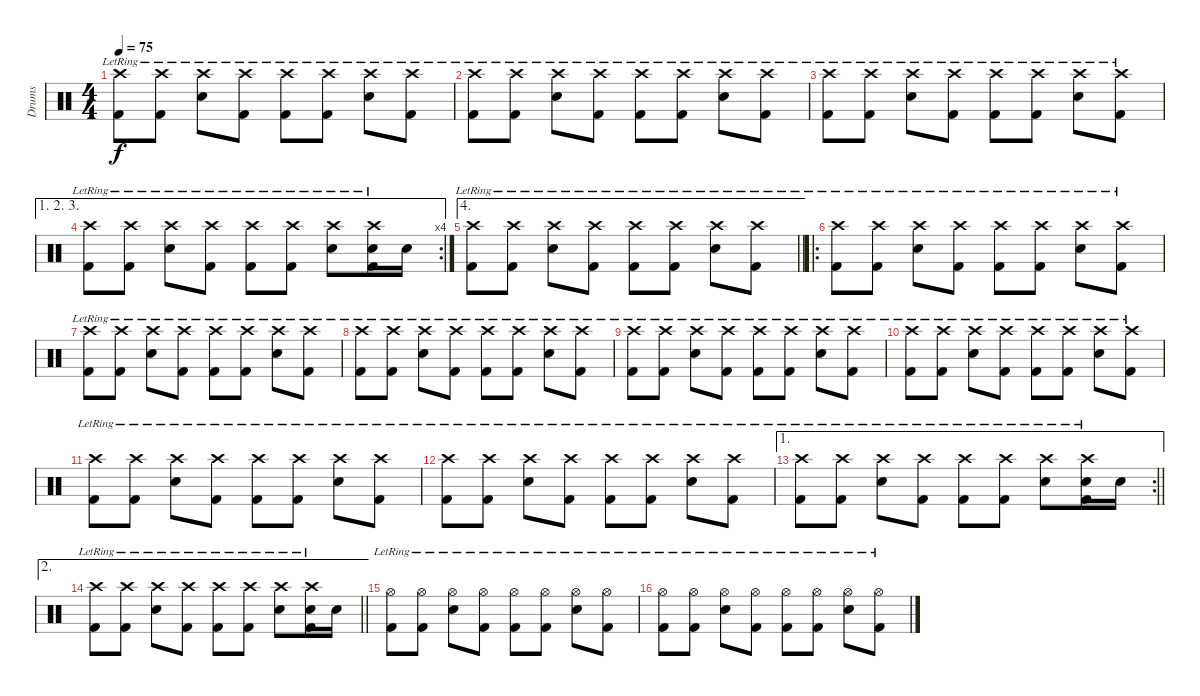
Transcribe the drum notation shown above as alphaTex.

\track ("Drums" "Drums") {instrument percussion}
\staff {score}
\articulation defaults
\ts (4 4)
\tempo 75
\clef neutral
\ks c
("Crash high (hit)"{lr} "Kick (hit) 2"{lr}).8{dy f} ("Crash high (hit)"{lr} "Kick (hit) 2"{lr}).8 ("Crash high (hit)"{lr} "Electric Snare (hit)"{lr}).8 ("Crash high (hit)"{lr} "Kick (hit) 2"{lr}).8 ("Crash high (hit)"{lr} "Kick (hit) 2"{lr}).8 ("Crash high (hit)"{lr} "Kick (hit) 2"{lr}).8 ("Crash high (hit)"{lr} "Electric Snare (hit)"{lr}).8 ("Crash high (hit)"{lr} "Kick (hit) 2"{lr}).8 |
("Crash high (hit)"{lr} "Kick (hit) 2"{lr}).8 ("Crash high (hit)"{lr} "Kick (hit) 2"{lr}).8 ("Crash high (hit)"{lr} "Electric Snare (hit)"{lr}).8 ("Crash high (hit)"{lr} "Kick (hit) 2"{lr}).8 ("Crash high (hit)"{lr} "Kick (hit) 2"{lr}).8 ("Crash high (hit)"{lr} "Kick (hit) 2"{lr}).8 ("Crash high (hit)"{lr} "Electric Snare (hit)"{lr}).8 ("Crash high (hit)"{lr} "Kick (hit) 2"{lr}).8 |
("Crash high (hit)"{lr} "Kick (hit) 2"{lr}).8 ("Crash high (hit)"{lr} "Kick (hit) 2"{lr}).8 ("Crash high (hit)"{lr} "Electric Snare (hit)"{lr}).8 ("Crash high (hit)"{lr} "Kick (hit) 2"{lr}).8 ("Crash high (hit)"{lr} "Kick (hit) 2"{lr}).8 ("Crash high (hit)"{lr} "Kick (hit) 2"{lr}).8 ("Crash high (hit)"{lr} "Electric Snare (hit)"{lr}).8 ("Crash high (hit)"{lr} "Kick (hit) 2"{lr}).8 |
\ae (1 2 3)
\rc 4
("Crash high (hit)"{lr} "Kick (hit) 2"{lr}).8 ("Crash high (hit)"{lr} "Kick (hit) 2"{lr}).8 ("Crash high (hit)"{lr} "Electric Snare (hit)"{lr}).8 ("Crash high (hit)"{lr} "Kick (hit) 2"{lr}).8 ("Crash high (hit)"{lr} "Kick (hit) 2"{lr}).8 ("Crash high (hit)" "Kick (hit) 2"{lr}).8 ("Crash high (hit)"{lr} "Electric Snare (hit)"{lr}).8 ("Crash high (hit)"{lr} "Electric Snare (hit)" "Kick (hit) 2"{lr}).16 "Electric Snare (hit)".16 |
\ae 4
\barLineRight lightlight
("Crash high (hit)"{lr} "Kick (hit) 2"{lr}).8 ("Crash high (hit)"{lr} "Kick (hit) 2"{lr}).8 ("Crash high (hit)"{lr} "Electric Snare (hit)"{lr}).8 ("Crash high (hit)"{lr} "Kick (hit) 2"{lr}).8 ("Crash high (hit)"{lr} "Kick (hit) 2"{lr}).8 ("Crash high (hit)"{lr} "Kick (hit) 2"{lr}).8 ("Crash high (hit)"{lr} "Electric Snare (hit)"{lr}).8 ("Crash high (hit)"{lr} "Kick (hit) 2"{lr}).8 |
\ro
("Crash high (hit)"{lr} "Kick (hit) 2"{lr}).8 ("Crash high (hit)"{lr} "Kick (hit) 2"{lr}).8 ("Crash high (hit)"{lr} "Electric Snare (hit)"{lr}).8 ("Crash high (hit)"{lr} "Kick (hit) 2"{lr}).8 ("Crash high (hit)"{lr} "Kick (hit) 2"{lr}).8 ("Crash high (hit)"{lr} "Kick (hit) 2"{lr}).8 ("Crash high (hit)"{lr} "Electric Snare (hit)"{lr}).8 ("Crash high (hit)"{lr} "Kick (hit) 2"{lr}).8 |
("Crash high (hit)"{lr} "Kick (hit) 2"{lr}).8 ("Crash high (hit)"{lr} "Kick (hit) 2"{lr}).8 ("Crash high (hit)"{lr} "Electric Snare (hit)"{lr}).8 ("Crash high (hit)"{lr} "Kick (hit) 2"{lr}).8 ("Crash high (hit)"{lr} "Kick (hit) 2"{lr}).8 ("Crash high (hit)"{lr} "Kick (hit) 2"{lr}).8 ("Crash high (hit)"{lr} "Electric Snare (hit)"{lr}).8 ("Crash high (hit)"{lr} "Kick (hit) 2"{lr}).8 |
("Crash high (hit)"{lr} "Kick (hit) 2"{lr}).8 ("Crash high (hit)"{lr} "Kick (hit) 2"{lr}).8 ("Crash high (hit)"{lr} "Electric Snare (hit)"{lr}).8 ("Crash high (hit)"{lr} "Kick (hit) 2"{lr}).8 ("Crash high (hit)"{lr} "Kick (hit) 2"{lr}).8 ("Crash high (hit)"{lr} "Kick (hit) 2"{lr}).8 ("Crash high (hit)"{lr} "Electric Snare (hit)"{lr}).8 ("Crash high (hit)"{lr} "Kick (hit) 2"{lr}).8 |
("Crash high (hit)"{lr} "Kick (hit) 2"{lr}).8 ("Crash high (hit)"{lr} "Kick (hit) 2"{lr}).8 ("Crash high (hit)"{lr} "Electric Snare (hit)"{lr}).8 ("Crash high (hit)"{lr} "Kick (hit) 2"{lr}).8 ("Crash high (hit)"{lr} "Kick (hit) 2"{lr}).8 ("Crash high (hit)"{lr} "Kick (hit) 2"{lr}).8 ("Crash high (hit)"{lr} "Electric Snare (hit)"{lr}).8 ("Crash high (hit)"{lr} "Kick (hit) 2"{lr}).8 |
("Crash high (hit)"{lr} "Kick (hit) 2"{lr}).8 ("Crash high (hit)"{lr} "Kick (hit) 2"{lr}).8 ("Crash high (hit)"{lr} "Electric Snare (hit)"{lr}).8 ("Crash high (hit)"{lr} "Kick (hit) 2"{lr}).8 ("Crash high (hit)"{lr} "Kick (hit) 2"{lr}).8 ("Crash high (hit)"{lr} "Kick (hit) 2"{lr}).8 ("Crash high (hit)"{lr} "Electric Snare (hit)"{lr}).8 ("Crash high (hit)"{lr} "Kick (hit) 2"{lr}).8 |
("Crash high (hit)"{lr} "Kick (hit) 2"{lr}).8 ("Crash high (hit)"{lr} "Kick (hit) 2"{lr}).8 ("Crash high (hit)"{lr} "Electric Snare (hit)"{lr}).8 ("Crash high (hit)"{lr} "Kick (hit) 2"{lr}).8 ("Crash high (hit)"{lr} "Kick (hit) 2"{lr}).8 ("Crash high (hit)"{lr} "Kick (hit) 2"{lr}).8 ("Crash high (hit)"{lr} "Electric Snare (hit)"{lr}).8 ("Crash high (hit)"{lr} "Kick (hit) 2"{lr}).8 |
("Crash high (hit)"{lr} "Kick (hit) 2"{lr}).8 ("Crash high (hit)"{lr} "Kick (hit) 2"{lr}).8 ("Crash high (hit)"{lr} "Electric Snare (hit)"{lr}).8 ("Crash high (hit)"{lr} "Kick (hit) 2"{lr}).8 ("Crash high (hit)"{lr} "Kick (hit) 2"{lr}).8 ("Crash high (hit)"{lr} "Kick (hit) 2"{lr}).8 ("Crash high (hit)"{lr} "Electric Snare (hit)"{lr}).8 ("Crash high (hit)"{lr} "Kick (hit) 2"{lr}).8 |
\ae 1
\rc 2
\barLineRight lightlight
("Crash high (hit)"{lr} "Kick (hit) 2"{lr}).8 ("Crash high (hit)"{lr} "Kick (hit) 2"{lr}).8 ("Crash high (hit)"{lr} "Electric Snare (hit)"{lr}).8 ("Crash high (hit)"{lr} "Kick (hit) 2"{lr}).8 ("Crash high (hit)"{lr} "Kick (hit) 2"{lr}).8 ("Crash high (hit)" "Kick (hit) 2"{lr}).8 ("Crash high (hit)"{lr} "Electric Snare (hit)"{lr}).8 ("Crash high (hit)"{lr} "Electric Snare (hit)" "Kick (hit) 2"{lr}).16 "Electric Snare (hit)".16 |
\ae 2
\barLineRight lightlight
("Crash high (hit)"{lr} "Kick (hit) 2"{lr}).8 ("Crash high (hit)"{lr} "Kick (hit) 2"{lr}).8 ("Crash high (hit)"{lr} "Electric Snare (hit)"{lr}).8 ("Crash high (hit)"{lr} "Kick (hit) 2"{lr}).8 ("Crash high (hit)"{lr} "Kick (hit) 2"{lr}).8 ("Crash high (hit)" "Kick (hit) 2"{lr}).8 ("Crash high (hit)"{lr} "Electric Snare (hit)"{lr}).8 ("Crash high (hit)"{lr} "Electric Snare (hit)" "Kick (hit) 2"{lr}).16 "Electric Snare (hit)".16 |
("Hi-Hat (open)"{lr} "Kick (hit) 2"{lr}).8{volume 9} ("Hi-Hat (open)"{lr} "Kick (hit) 2"{lr}).8 ("Hi-Hat (open)"{lr} "Electric Snare (hit)"{lr}).8 ("Hi-Hat (open)"{lr} "Kick (hit) 2"{lr}).8 ("Hi-Hat (open)"{lr} "Kick (hit) 2"{lr}).8 ("Hi-Hat (open)"{lr} "Kick (hit) 2"{lr}).8 ("Hi-Hat (open)"{lr} "Electric Snare (hit)"{lr}).8 ("Hi-Hat (open)"{lr} "Kick (hit) 2"{lr}).8 |
("Hi-Hat (open)"{lr} "Kick (hit) 2"{lr}).8 ("Hi-Hat (open)"{lr} "Kick (hit) 2"{lr}).8 ("Hi-Hat (open)"{lr} "Electric Snare (hit)"{lr}).8 ("Hi-Hat (open)"{lr} "Kick (hit) 2"{lr}).8 ("Hi-Hat (open)"{lr} "Kick (hit) 2"{lr}).8 ("Hi-Hat (open)"{lr} "Kick (hit) 2"{lr}).8 ("Hi-Hat (open)"{lr} "Electric Snare (hit)"{lr}).8 ("Hi-Hat (open)"{lr} "Kick (hit) 2"{lr}).8
